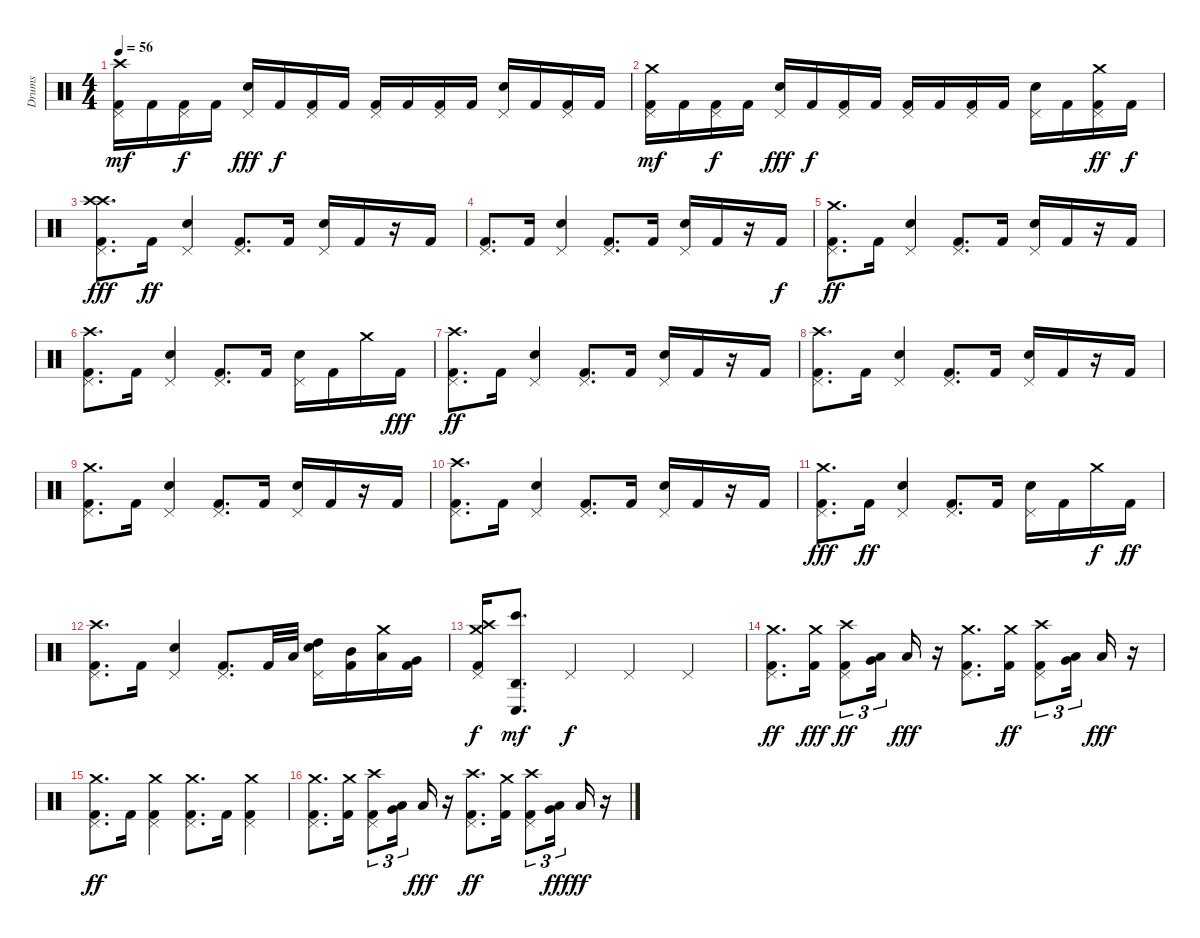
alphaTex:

\track ("Drums" "Drums") {instrument percussion}
\staff {score}
\articulation defaults
\ts (4 4)
\tempo 56
\clef neutral
\ks c
("Crash high (hit)" "Pedal Hi-Hat (hit)" "Kick (hit) 2").16{dy mf} "Kick (hit) 2".16 ("Pedal Hi-Hat (hit)" "Kick (hit) 2").16{dy f} "Kick (hit) 2".16 ("Pedal Hi-Hat (hit)" "Snare (hit) 2").16{dy fff} "Kick (hit) 2".16{dy f} ("Pedal Hi-Hat (hit)" "Kick (hit) 2").16 "Kick (hit) 2".16 ("Pedal Hi-Hat (hit)" "Kick (hit) 2").16 "Kick (hit) 2".16 ("Pedal Hi-Hat (hit)" "Kick (hit) 2").16 "Kick (hit) 2".16 ("Pedal Hi-Hat (hit)" "Snare (hit) 2").16 "Kick (hit) 2".16 ("Pedal Hi-Hat (hit)" "Kick (hit) 2").16 "Kick (hit) 2".16 |
("Pedal Hi-Hat (hit)" "Crash medium (hit)" "Kick (hit) 2").16{dy mf} "Kick (hit) 2".16 ("Pedal Hi-Hat (hit)" "Kick (hit) 2").16{dy f} "Kick (hit) 2".16 ("Pedal Hi-Hat (hit)" "Snare (hit) 2").16{dy fff} "Kick (hit) 2".16{dy f} ("Pedal Hi-Hat (hit)" "Kick (hit) 2").16 "Kick (hit) 2".16 ("Pedal Hi-Hat (hit)" "Kick (hit) 2").16 "Kick (hit) 2".16 ("Pedal Hi-Hat (hit)" "Kick (hit) 2").16 "Kick (hit) 2".16 ("Pedal Hi-Hat (hit)" "Snare (hit) 2").16 "Kick (hit) 2".16 ("Crash medium (hit)" "Pedal Hi-Hat (hit)" "Kick (hit) 2").16{dy ff} "Kick (hit) 2".16{dy f} |
("Crash high (hit)" "Pedal Hi-Hat (hit)" "Kick (hit) 2" "Crash high (hit)").8{d dy fff} "Kick (hit) 2".16{dy ff} ("Snare (hit) 2" "Pedal Hi-Hat (hit)").4 ("Kick (hit) 2" "Pedal Hi-Hat (hit)").8{d} "Kick (hit) 2".16 ("Snare (hit) 2" "Pedal Hi-Hat (hit)").16 "Kick (hit) 2".16 r.16 "Kick (hit) 2".16 |
("Pedal Hi-Hat (hit)" "Kick (hit) 2").8{d} "Kick (hit) 2".16 ("Snare (hit) 2" "Pedal Hi-Hat (hit)").4 ("Kick (hit) 2" "Pedal Hi-Hat (hit)").8{d} "Kick (hit) 2".16 ("Snare (hit) 2" "Pedal Hi-Hat (hit)").16 "Kick (hit) 2".16 r.16 "Kick (hit) 2".16{dy f} |
("Crash medium (hit)" "Pedal Hi-Hat (hit)" "Kick (hit) 2").8{d dy ff} "Kick (hit) 2".16 ("Snare (hit) 2" "Pedal Hi-Hat (hit)").4 ("Kick (hit) 2" "Pedal Hi-Hat (hit)").8{d} "Kick (hit) 2".16 ("Snare (hit) 2" "Pedal Hi-Hat (hit)").16 "Kick (hit) 2".16 r.16 "Kick (hit) 2".16 |
("Pedal Hi-Hat (hit)" "Crash high (hit)" "Kick (hit) 2").8{d} "Kick (hit) 2".16 ("Snare (hit) 2" "Pedal Hi-Hat (hit)").4 ("Kick (hit) 2" "Pedal Hi-Hat (hit)").8{d} "Kick (hit) 2".16 ("Snare (hit) 2" "Pedal Hi-Hat (hit)").16 "Kick (hit) 2".16 "Crash medium (hit)".16 "Kick (hit) 2".16{dy fff} |
("Crash high (hit)" "Pedal Hi-Hat (hit)" "Kick (hit) 2").8{d dy ff} "Kick (hit) 2".16 ("Snare (hit) 2" "Pedal Hi-Hat (hit)").4 ("Kick (hit) 2" "Pedal Hi-Hat (hit)").8{d} "Kick (hit) 2".16 ("Snare (hit) 2" "Pedal Hi-Hat (hit)").16 "Kick (hit) 2".16 r.16 "Kick (hit) 2".16 |
("Pedal Hi-Hat (hit)" "Crash high (hit)" "Kick (hit) 2").8{d} "Kick (hit) 2".16 ("Snare (hit) 2" "Pedal Hi-Hat (hit)").4 ("Kick (hit) 2" "Pedal Hi-Hat (hit)").8{d} "Kick (hit) 2".16 ("Snare (hit) 2" "Pedal Hi-Hat (hit)").16 "Kick (hit) 2".16 r.16 "Kick (hit) 2".16 |
("Crash medium (hit)" "Pedal Hi-Hat (hit)" "Kick (hit) 2").8{d} "Kick (hit) 2".16 ("Snare (hit) 2" "Pedal Hi-Hat (hit)").4 ("Kick (hit) 2" "Pedal Hi-Hat (hit)").8{d} "Kick (hit) 2".16 ("Snare (hit) 2" "Pedal Hi-Hat (hit)").16 "Kick (hit) 2".16 r.16 "Kick (hit) 2".16 |
("Crash high (hit)" "Pedal Hi-Hat (hit)" "Kick (hit) 2").8{d} "Kick (hit) 2".16 ("Snare (hit) 2" "Pedal Hi-Hat (hit)").4 ("Kick (hit) 2" "Pedal Hi-Hat (hit)").8{d} "Kick (hit) 2".16 ("Snare (hit) 2" "Pedal Hi-Hat (hit)").16 "Kick (hit) 2".16 r.16 "Kick (hit) 2".16 |
("Pedal Hi-Hat (hit)" "Kick (hit) 2" "Crash medium (hit)").8{d dy fff} "Kick (hit) 2".16{dy ff} ("Snare (hit) 2" "Pedal Hi-Hat (hit)").4 ("Kick (hit) 2" "Pedal Hi-Hat (hit)").8{d} "Kick (hit) 2".16 ("Snare (hit) 2" "Pedal Hi-Hat (hit)").16 "Kick (hit) 2".16 "Crash medium (hit)".16{dy f} "Kick (hit) 2".16{dy ff} |
("Crash high (hit)" "Pedal Hi-Hat (hit)" "Kick (hit) 2").8{d} "Kick (hit) 2".16 ("Snare (hit) 2" "Pedal Hi-Hat (hit)").4 ("Kick (hit) 2" "Pedal Hi-Hat (hit)").8{d volume 0} "Kick (hit) 2".32 "Low Tom (hit)".32 ("High Tom (hit)" "Snare (hit) 2" "Pedal Hi-Hat (hit)").16 ("Kick (hit) 2" "Mid Tom (hit)").16 ("Low Tom (hit)" "Crash medium (hit)").16 ("Kick (hit) 2" "Very Low Tom (hit)").16 |
("Crash medium (hit)" "Crash high (hit)" "Pedal Hi-Hat (hit)" "Kick (hit) 2").16{dy f} ("Bongo High (hit)" "Agogo high (hit)" "Conga low (hit)").8{d dy mf} "Pedal Hi-Hat (hit)".4{dy f volume 3} "Pedal Hi-Hat (hit)".4{volume 6} "Pedal Hi-Hat (hit)".4{volume 8} |
("Pedal Hi-Hat (hit)" "Kick (hit) 2" "Crash medium (hit)").8{d dy ff volume 7} ("Crash medium (hit)" "Kick (hit) 2").16{dy fff volume 4} ("Pedal Hi-Hat (hit)" "Crash high (hit)" "Kick (hit) 2").8{tu (3 2) dy ff volume 2} ("Low Tom (hit)" "Very Low Tom (hit)").16{tu (3 2) volume 0} "Low Floor Tom (hit)".16{dy fff} r.16 ("Crash medium (hit)" "Pedal Hi-Hat (hit)" "Kick (hit) 2").8{d} ("Crash medium (hit)" "Kick (hit) 2").16{dy ff} ("Crash high (hit)" "Pedal Hi-Hat (hit)" "Kick (hit) 2").8{tu (3 2)} ("Low Tom (hit)" "Very Low Tom (hit)").16{tu (3 2)} "Low Floor Tom (hit)".16{dy fff} r.16 |
("Kick (hit) 2" "Crash medium (hit)" "Pedal Hi-Hat (hit)").8{d dy ff} "Kick (hit) 2".16 ("Crash medium (hit)" "Kick (hit) 2" "Pedal Hi-Hat (hit)").4 ("Pedal Hi-Hat (hit)" "Kick (hit) 2" "Crash medium (hit)").8{d} "Kick (hit) 2".16 ("Crash medium (hit)" "Pedal Hi-Hat (hit)" "Kick (hit) 2").4 |
("Pedal Hi-Hat (hit)" "Kick (hit) 2" "Crash medium (hit)").8{d} ("Kick (hit) 2" "Crash medium (hit)").16 ("Kick (hit) 2" "Crash high (hit)" "Pedal Hi-Hat (hit)").8{tu (3 2)} ("Low Tom (hit)" "Very Low Tom (hit)").16{tu (3 2)} "Low Floor Tom (hit)".16{dy fff} r.16 ("Crash high (hit)" "Pedal Hi-Hat (hit)" "Kick (hit) 2").8{d dy ff} ("Crash medium (hit)" "Kick (hit) 2").16 ("Pedal Hi-Hat (hit)" "Kick (hit) 2" "Crash high (hit)").8{tu (3 2)} ("Low Tom (hit)" "Very Low Tom (hit)").16{tu (3 2) dy fff} "Low Floor Tom (hit)".16{dy ff} r.16
